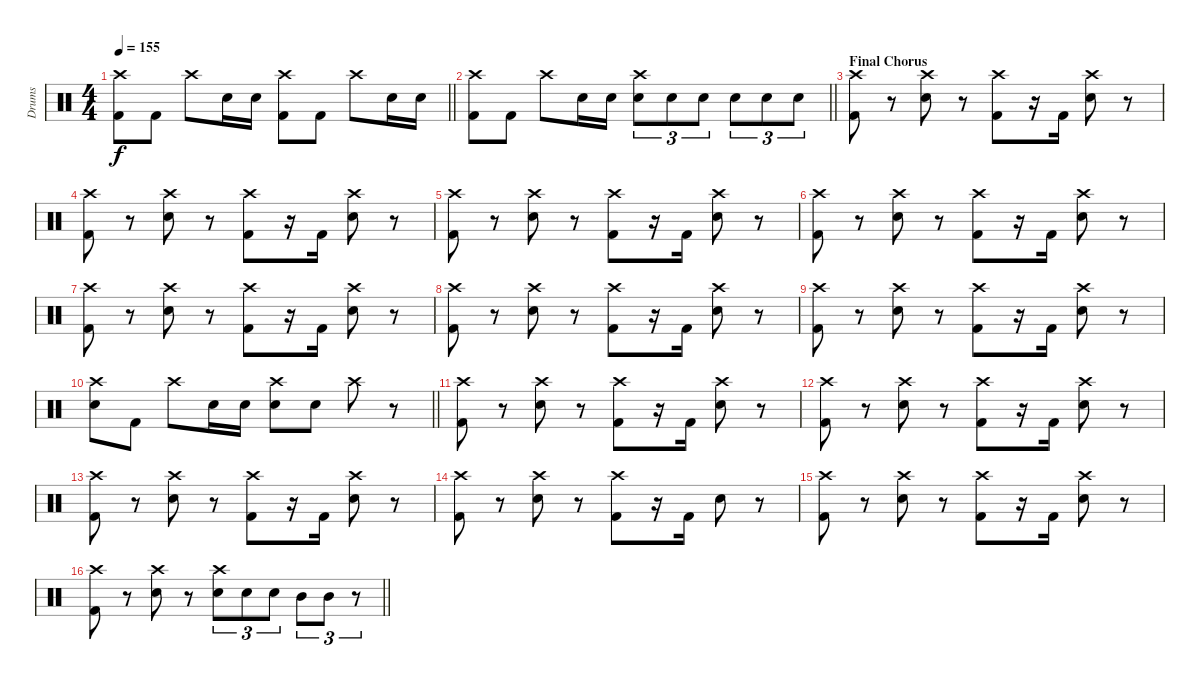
\track ("Drums" "Drums") {instrument percussion}
\staff {score}
\articulation defaults
\ts (4 4)
\tempo 155
\clef neutral
\barLineRight lightlight
\ks c
("Crash high (hit)" "Kick (hit) 2").8{dy f} "Kick (hit) 2".8 "Crash high (hit)".8 "Electric Snare (hit)".16 "Electric Snare (hit)".16 ("Crash high (hit)" "Kick (hit) 2").8 "Kick (hit) 2".8 "Crash high (hit)".8 "Electric Snare (hit)".16 "Electric Snare (hit)".16 |
\section ("" "")
\barLineRight lightlight
("Crash high (hit)" "Kick (hit) 2").8 "Kick (hit) 2".8 "Crash high (hit)".8 "Electric Snare (hit)".16 "Electric Snare (hit)".16 ("Crash high (hit)" "Electric Snare (hit)").8{tu (3 2)} "Electric Snare (hit)".8{tu (3 2)} "Electric Snare (hit)".8{tu (3 2)} "Electric Snare (hit)".8{tu (3 2)} "Electric Snare (hit)".8{tu (3 2)} "Electric Snare (hit)".8{tu (3 2)} |
\section ("" "Final Chorus")
("Crash high (hit)" "Kick (hit) 2").8 r.8 ("Crash high (hit)" "Electric Snare (hit)").8 r.8 ("Crash high (hit)" "Kick (hit) 2").8 r.16 "Kick (hit) 2".16 ("Crash high (hit)" "Electric Snare (hit)").8 r.8 |
("Crash high (hit)" "Kick (hit) 2").8 r.8 ("Crash high (hit)" "Electric Snare (hit)").8 r.8 ("Crash high (hit)" "Kick (hit) 2").8 r.16 "Kick (hit) 2".16 ("Crash high (hit)" "Electric Snare (hit)").8 r.8 |
("Crash high (hit)" "Kick (hit) 2").8 r.8 ("Crash high (hit)" "Electric Snare (hit)").8 r.8 ("Crash high (hit)" "Kick (hit) 2").8 r.16 "Kick (hit) 2".16 ("Crash high (hit)" "Electric Snare (hit)").8 r.8 |
("Crash high (hit)" "Kick (hit) 2").8 r.8 ("Crash high (hit)" "Electric Snare (hit)").8 r.8 ("Crash high (hit)" "Kick (hit) 2").8 r.16 "Kick (hit) 2".16 ("Crash high (hit)" "Electric Snare (hit)").8 r.8 |
("Crash high (hit)" "Kick (hit) 2").8 r.8 ("Crash high (hit)" "Electric Snare (hit)").8 r.8 ("Crash high (hit)" "Kick (hit) 2").8 r.16 "Kick (hit) 2".16 ("Crash high (hit)" "Electric Snare (hit)").8 r.8 |
("Crash high (hit)" "Kick (hit) 2").8 r.8 ("Crash high (hit)" "Electric Snare (hit)").8 r.8 ("Crash high (hit)" "Kick (hit) 2").8 r.16 "Kick (hit) 2".16 ("Crash high (hit)" "Electric Snare (hit)").8 r.8 |
("Crash high (hit)" "Kick (hit) 2").8 r.8 ("Crash high (hit)" "Electric Snare (hit)").8 r.8 ("Crash high (hit)" "Kick (hit) 2").8 r.16 "Kick (hit) 2".16 ("Crash high (hit)" "Electric Snare (hit)").8 r.8 |
\barLineRight lightlight
("Crash high (hit)" "Electric Snare (hit)").8 "Kick (hit) 2".8 "Crash high (hit)".8 "Electric Snare (hit)".16 "Electric Snare (hit)".16 ("Crash high (hit)" "Electric Snare (hit)").8 "Electric Snare (hit)".8 "Crash high (hit)".8 r.8 |
("Crash high (hit)" "Kick (hit) 2").8 r.8 ("Crash high (hit)" "Electric Snare (hit)").8 r.8 ("Crash high (hit)" "Kick (hit) 2").8 r.16 "Kick (hit) 2".16 ("Crash high (hit)" "Electric Snare (hit)").8 r.8 |
("Crash high (hit)" "Kick (hit) 2").8 r.8 ("Crash high (hit)" "Electric Snare (hit)").8 r.8 ("Crash high (hit)" "Kick (hit) 2").8 r.16 "Kick (hit) 2".16 ("Crash high (hit)" "Electric Snare (hit)").8 r.8 |
("Crash high (hit)" "Kick (hit) 2").8 r.8 ("Crash high (hit)" "Electric Snare (hit)").8 r.8 ("Crash high (hit)" "Kick (hit) 2").8 r.16 "Kick (hit) 2".16 ("Crash high (hit)" "Electric Snare (hit)").8 r.8 |
("Crash high (hit)" "Kick (hit) 2").8 r.8 ("Crash high (hit)" "Electric Snare (hit)").8 r.8 ("Crash high (hit)" "Kick (hit) 2").8 r.16 "Kick (hit) 2".16 "Electric Snare (hit)".8 r.8 |
("Crash high (hit)" "Kick (hit) 2").8 r.8 ("Crash high (hit)" "Electric Snare (hit)").8 r.8 ("Crash high (hit)" "Kick (hit) 2").8 r.16 "Kick (hit) 2".16 ("Crash high (hit)" "Electric Snare (hit)").8 r.8 |
\barLineRight lightlight
("Crash high (hit)" "Kick (hit) 2").8 r.8 ("Crash high (hit)" "Electric Snare (hit)").8 r.8 ("Crash high (hit)" "Electric Snare (hit)").8{tu (3 2)} "Electric Snare (hit)".8{tu (3 2)} "Electric Snare (hit)".8{tu (3 2)} "Mid Tom (hit)".8{tu (3 2)} "Mid Tom (hit)".8{tu (3 2)} r.8{tu (3 2)}
